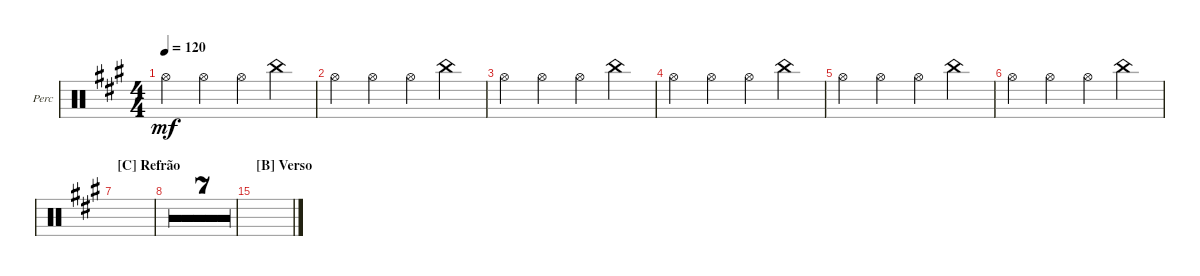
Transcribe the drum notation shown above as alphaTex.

\defaultSystemsLayout 4
\bracketExtendMode groupsimilarinstruments
\firstSystemTrackNameOrientation horizontal
\otherSystemsTrackNameOrientation horizontal
\track ("Percussão" "Perc") {multiBarRest instrument percussion}
\staff {score}
\articulation defaults
\ts (4 4)
\tempo 120
\clef neutral
\ks a "Hi-Hat (open)".4{dy mf} "Hi-Hat (open)".4 "Hi-Hat (open)".4 "China (hit)".4
|
"Hi-Hat (open)".4 "Hi-Hat (open)".4 "Hi-Hat (open)".4 "China (hit)".4 |
"Hi-Hat (open)".4 "Hi-Hat (open)".4 "Hi-Hat (open)".4 "China (hit)".4 |
"Hi-Hat (open)".4 "Hi-Hat (open)".4 "Hi-Hat (open)".4 "China (hit)".4 |
"Hi-Hat (open)".4 "Hi-Hat (open)".4 "Hi-Hat (open)".4 "China (hit)".4 |
"Hi-Hat (open)".4 "Hi-Hat (open)".4 "Hi-Hat (open)".4 "China (hit)".4 |
\section ("C" "Refrão")
|
|
|
|
|
|
|
|
\section ("B" "Verso")
